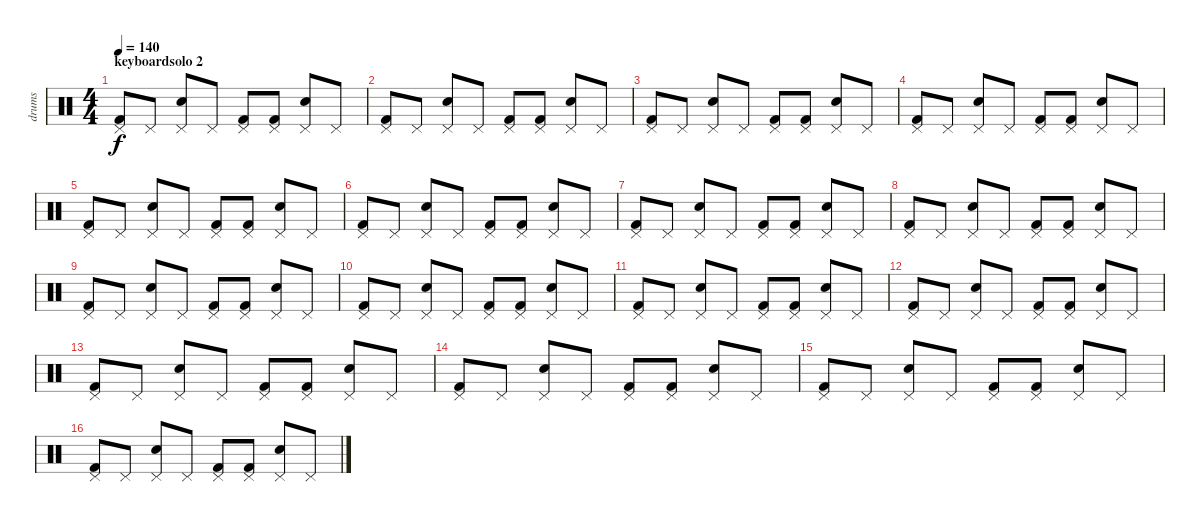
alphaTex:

\track ("drums" "drums") {instrument percussion}
\staff {score}
\articulation defaults
\ts (4 4)
\section ("" "keyboardsolo 2")
\tempo 140
\clef neutral
\ks c
("Kick (hit) 2" "Pedal Hi-Hat (hit)").8{dy f} "Pedal Hi-Hat (hit)".8 ("Snare (hit) 2" "Pedal Hi-Hat (hit)").8 "Pedal Hi-Hat (hit)".8 ("Kick (hit) 2" "Pedal Hi-Hat (hit)").8 ("Kick (hit) 2" "Pedal Hi-Hat (hit)").8 ("Snare (hit) 2" "Pedal Hi-Hat (hit)").8 "Pedal Hi-Hat (hit)".8 |
("Kick (hit) 2" "Pedal Hi-Hat (hit)").8 "Pedal Hi-Hat (hit)".8 ("Snare (hit) 2" "Pedal Hi-Hat (hit)").8 "Pedal Hi-Hat (hit)".8 ("Kick (hit) 2" "Pedal Hi-Hat (hit)").8 ("Kick (hit) 2" "Pedal Hi-Hat (hit)").8 ("Snare (hit) 2" "Pedal Hi-Hat (hit)").8 "Pedal Hi-Hat (hit)".8 |
("Kick (hit) 2" "Pedal Hi-Hat (hit)").8 "Pedal Hi-Hat (hit)".8 ("Snare (hit) 2" "Pedal Hi-Hat (hit)").8 "Pedal Hi-Hat (hit)".8 ("Kick (hit) 2" "Pedal Hi-Hat (hit)").8 ("Kick (hit) 2" "Pedal Hi-Hat (hit)").8 ("Snare (hit) 2" "Pedal Hi-Hat (hit)").8 "Pedal Hi-Hat (hit)".8 |
("Kick (hit) 2" "Pedal Hi-Hat (hit)").8 "Pedal Hi-Hat (hit)".8 ("Snare (hit) 2" "Pedal Hi-Hat (hit)").8 "Pedal Hi-Hat (hit)".8 ("Kick (hit) 2" "Pedal Hi-Hat (hit)").8 ("Kick (hit) 2" "Pedal Hi-Hat (hit)").8 ("Snare (hit) 2" "Pedal Hi-Hat (hit)").8 "Pedal Hi-Hat (hit)".8 |
("Kick (hit) 2" "Pedal Hi-Hat (hit)").8 "Pedal Hi-Hat (hit)".8 ("Snare (hit) 2" "Pedal Hi-Hat (hit)").8 "Pedal Hi-Hat (hit)".8 ("Kick (hit) 2" "Pedal Hi-Hat (hit)").8 ("Kick (hit) 2" "Pedal Hi-Hat (hit)").8 ("Snare (hit) 2" "Pedal Hi-Hat (hit)").8 "Pedal Hi-Hat (hit)".8 |
("Kick (hit) 2" "Pedal Hi-Hat (hit)").8 "Pedal Hi-Hat (hit)".8 ("Snare (hit) 2" "Pedal Hi-Hat (hit)").8 "Pedal Hi-Hat (hit)".8 ("Kick (hit) 2" "Pedal Hi-Hat (hit)").8 ("Kick (hit) 2" "Pedal Hi-Hat (hit)").8 ("Snare (hit) 2" "Pedal Hi-Hat (hit)").8 "Pedal Hi-Hat (hit)".8 |
("Kick (hit) 2" "Pedal Hi-Hat (hit)").8 "Pedal Hi-Hat (hit)".8 ("Snare (hit) 2" "Pedal Hi-Hat (hit)").8 "Pedal Hi-Hat (hit)".8 ("Kick (hit) 2" "Pedal Hi-Hat (hit)").8 ("Kick (hit) 2" "Pedal Hi-Hat (hit)").8 ("Snare (hit) 2" "Pedal Hi-Hat (hit)").8 "Pedal Hi-Hat (hit)".8 |
("Kick (hit) 2" "Pedal Hi-Hat (hit)").8 "Pedal Hi-Hat (hit)".8 ("Snare (hit) 2" "Pedal Hi-Hat (hit)").8 "Pedal Hi-Hat (hit)".8 ("Kick (hit) 2" "Pedal Hi-Hat (hit)").8 ("Kick (hit) 2" "Pedal Hi-Hat (hit)").8 ("Snare (hit) 2" "Pedal Hi-Hat (hit)").8 "Pedal Hi-Hat (hit)".8 |
("Kick (hit) 2" "Pedal Hi-Hat (hit)").8 "Pedal Hi-Hat (hit)".8 ("Snare (hit) 2" "Pedal Hi-Hat (hit)").8 "Pedal Hi-Hat (hit)".8 ("Kick (hit) 2" "Pedal Hi-Hat (hit)").8 ("Kick (hit) 2" "Pedal Hi-Hat (hit)").8 ("Snare (hit) 2" "Pedal Hi-Hat (hit)").8 "Pedal Hi-Hat (hit)".8 |
("Kick (hit) 2" "Pedal Hi-Hat (hit)").8 "Pedal Hi-Hat (hit)".8 ("Snare (hit) 2" "Pedal Hi-Hat (hit)").8 "Pedal Hi-Hat (hit)".8 ("Kick (hit) 2" "Pedal Hi-Hat (hit)").8 ("Kick (hit) 2" "Pedal Hi-Hat (hit)").8 ("Snare (hit) 2" "Pedal Hi-Hat (hit)").8 "Pedal Hi-Hat (hit)".8 |
("Kick (hit) 2" "Pedal Hi-Hat (hit)").8 "Pedal Hi-Hat (hit)".8 ("Snare (hit) 2" "Pedal Hi-Hat (hit)").8 "Pedal Hi-Hat (hit)".8 ("Kick (hit) 2" "Pedal Hi-Hat (hit)").8 ("Kick (hit) 2" "Pedal Hi-Hat (hit)").8 ("Snare (hit) 2" "Pedal Hi-Hat (hit)").8 "Pedal Hi-Hat (hit)".8 |
("Kick (hit) 2" "Pedal Hi-Hat (hit)").8 "Pedal Hi-Hat (hit)".8 ("Snare (hit) 2" "Pedal Hi-Hat (hit)").8 "Pedal Hi-Hat (hit)".8 ("Kick (hit) 2" "Pedal Hi-Hat (hit)").8 ("Kick (hit) 2" "Pedal Hi-Hat (hit)").8 ("Snare (hit) 2" "Pedal Hi-Hat (hit)").8 "Pedal Hi-Hat (hit)".8 |
("Kick (hit) 2" "Pedal Hi-Hat (hit)").8 "Pedal Hi-Hat (hit)".8 ("Snare (hit) 2" "Pedal Hi-Hat (hit)").8 "Pedal Hi-Hat (hit)".8 ("Kick (hit) 2" "Pedal Hi-Hat (hit)").8 ("Kick (hit) 2" "Pedal Hi-Hat (hit)").8 ("Snare (hit) 2" "Pedal Hi-Hat (hit)").8 "Pedal Hi-Hat (hit)".8 |
("Kick (hit) 2" "Pedal Hi-Hat (hit)").8 "Pedal Hi-Hat (hit)".8 ("Snare (hit) 2" "Pedal Hi-Hat (hit)").8 "Pedal Hi-Hat (hit)".8 ("Kick (hit) 2" "Pedal Hi-Hat (hit)").8 ("Kick (hit) 2" "Pedal Hi-Hat (hit)").8 ("Snare (hit) 2" "Pedal Hi-Hat (hit)").8 "Pedal Hi-Hat (hit)".8 |
("Kick (hit) 2" "Pedal Hi-Hat (hit)").8 "Pedal Hi-Hat (hit)".8 ("Snare (hit) 2" "Pedal Hi-Hat (hit)").8 "Pedal Hi-Hat (hit)".8 ("Kick (hit) 2" "Pedal Hi-Hat (hit)").8 ("Kick (hit) 2" "Pedal Hi-Hat (hit)").8 ("Snare (hit) 2" "Pedal Hi-Hat (hit)").8 "Pedal Hi-Hat (hit)".8 |
("Kick (hit) 2" "Pedal Hi-Hat (hit)").8 "Pedal Hi-Hat (hit)".8 ("Snare (hit) 2" "Pedal Hi-Hat (hit)").8 "Pedal Hi-Hat (hit)".8 ("Kick (hit) 2" "Pedal Hi-Hat (hit)").8 ("Kick (hit) 2" "Pedal Hi-Hat (hit)").8 ("Snare (hit) 2" "Pedal Hi-Hat (hit)").8 "Pedal Hi-Hat (hit)".8
